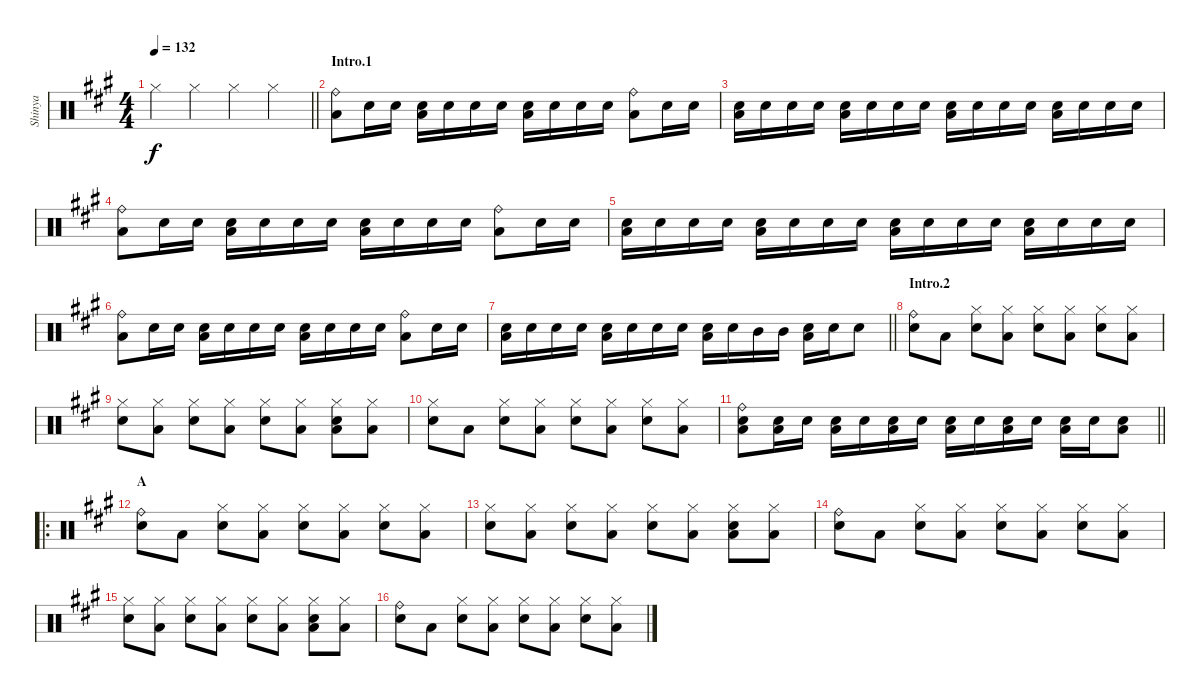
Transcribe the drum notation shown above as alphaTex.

\track ("Shinya" "Shinya") {instrument percussion}
\staff {score}
\articulation defaults
\ts (4 4)
\tempo 132
\clef neutral
\barLineRight lightlight
\ks a "Hi-Hat (closed)".4{dy f} "Hi-Hat (closed)".4 "Hi-Hat (closed)".4 "Hi-Hat (closed)".4
|
\section ("" "Intro.1")
("Low Floor Tom (hit)" "Ride (bell)").8 "Snare (hit) 2".16 "Snare (hit) 2".16 ("Low Floor Tom (hit)" "Snare (hit) 2").16 "Snare (hit) 2".16 "Snare (hit) 2".16 "Snare (hit) 2".16 ("Low Floor Tom (hit)" "Snare (hit) 2").16 "Snare (hit) 2".16 "Snare (hit) 2".16 "Snare (hit) 2".16 ("Low Floor Tom (hit)" "Ride (bell)").8 "Snare (hit) 2".16 "Snare (hit) 2".16 |
("Low Floor Tom (hit)" "Snare (hit) 2").16 "Snare (hit) 2".16 "Snare (hit) 2".16 "Snare (hit) 2".16 ("Low Floor Tom (hit)" "Snare (hit) 2").16 "Snare (hit) 2".16 "Snare (hit) 2".16 "Snare (hit) 2".16 ("Low Floor Tom (hit)" "Snare (hit) 2").16 "Snare (hit) 2".16 "Snare (hit) 2".16 "Snare (hit) 2".16 ("Low Floor Tom (hit)" "Snare (hit) 2").16 "Snare (hit) 2".16 "Snare (hit) 2".16 "Snare (hit) 2".16 |
("Low Floor Tom (hit)" "Ride (bell)").8 "Snare (hit) 2".16 "Snare (hit) 2".16 ("Low Floor Tom (hit)" "Snare (hit) 2").16 "Snare (hit) 2".16 "Snare (hit) 2".16 "Snare (hit) 2".16 ("Low Floor Tom (hit)" "Snare (hit) 2").16 "Snare (hit) 2".16 "Snare (hit) 2".16 "Snare (hit) 2".16 ("Low Floor Tom (hit)" "Ride (bell)").8 "Snare (hit) 2".16 "Snare (hit) 2".16 |
("Low Floor Tom (hit)" "Snare (hit) 2").16 "Snare (hit) 2".16 "Snare (hit) 2".16 "Snare (hit) 2".16 ("Low Floor Tom (hit)" "Snare (hit) 2").16 "Snare (hit) 2".16 "Snare (hit) 2".16 "Snare (hit) 2".16 ("Low Floor Tom (hit)" "Snare (hit) 2").16 "Snare (hit) 2".16 "Snare (hit) 2".16 "Snare (hit) 2".16 ("Low Floor Tom (hit)" "Snare (hit) 2").16 "Snare (hit) 2".16 "Snare (hit) 2".16 "Snare (hit) 2".16 |
("Low Floor Tom (hit)" "Ride (bell)").8 "Snare (hit) 2".16 "Snare (hit) 2".16 ("Low Floor Tom (hit)" "Snare (hit) 2").16 "Snare (hit) 2".16 "Snare (hit) 2".16 "Snare (hit) 2".16 ("Low Floor Tom (hit)" "Snare (hit) 2").16 "Snare (hit) 2".16 "Snare (hit) 2".16 "Snare (hit) 2".16 ("Low Floor Tom (hit)" "Ride (bell)").8 "Snare (hit) 2".16 "Snare (hit) 2".16 |
\barLineRight lightlight
("Low Floor Tom (hit)" "Snare (hit) 2").16 "Snare (hit) 2".16 "Snare (hit) 2".16 "Snare (hit) 2".16 ("Low Floor Tom (hit)" "Snare (hit) 2").16 "Snare (hit) 2".16 "Snare (hit) 2".16 "Snare (hit) 2".16 ("Low Floor Tom (hit)" "Snare (hit) 2").16 "Snare (hit) 2".16 "Mid Tom (hit)".16 "Mid Tom (hit)".16 ("Low Floor Tom (hit)" "Snare (hit) 2").16 "Snare (hit) 2".16 "Snare (hit) 2".8 |
\section ("" "Intro.2")
("Ride (bell)" "Snare (hit) 2").8 "Low Floor Tom (hit)".8 ("Hi-Hat (closed)" "Snare (hit) 2").8 ("Low Floor Tom (hit)" "Hi-Hat (closed)").8 ("Hi-Hat (closed)" "Snare (hit) 2").8 ("Low Floor Tom (hit)" "Hi-Hat (closed)").8 ("Hi-Hat (closed)" "Snare (hit) 2").8 ("Low Floor Tom (hit)" "Hi-Hat (closed)").8 |
("Hi-Hat (closed)" "Snare (hit) 2").8 ("Low Floor Tom (hit)" "Hi-Hat (closed)").8 ("Hi-Hat (closed)" "Snare (hit) 2").8 ("Low Floor Tom (hit)" "Hi-Hat (closed)").8 ("Hi-Hat (closed)" "Snare (hit) 2").8 ("Low Floor Tom (hit)" "Hi-Hat (closed)").8 ("Low Floor Tom (hit)" "Hi-Hat (closed)" "Snare (hit) 2").8 ("Low Floor Tom (hit)" "Hi-Hat (closed)").8 |
("Hi-Hat (closed)" "Snare (hit) 2").8 "Low Floor Tom (hit)".8 ("Hi-Hat (closed)" "Snare (hit) 2").8 ("Low Floor Tom (hit)" "Hi-Hat (closed)").8 ("Hi-Hat (closed)" "Snare (hit) 2").8 ("Low Floor Tom (hit)" "Hi-Hat (closed)").8 ("Hi-Hat (closed)" "Snare (hit) 2").8 ("Low Floor Tom (hit)" "Hi-Hat (closed)").8 |
\barLineRight lightlight
("Low Floor Tom (hit)" "Ride (bell)" "Snare (hit) 2").8 ("Low Floor Tom (hit)" "Snare (hit) 2").16 "Snare (hit) 2".16 ("Low Floor Tom (hit)" "Snare (hit) 2").16 "Snare (hit) 2".16 ("Low Floor Tom (hit)" "Snare (hit) 2").16 "Snare (hit) 2".16 ("Low Floor Tom (hit)" "Snare (hit) 2").16 "Snare (hit) 2".16 ("Low Floor Tom (hit)" "Snare (hit) 2").16 "Snare (hit) 2".16 ("Low Floor Tom (hit)" "Snare (hit) 2").16 "Snare (hit) 2".16 ("Low Floor Tom (hit)" "Snare (hit) 2").8 |
\ro
\section ("" "A")
("Ride (bell)" "Snare (hit) 2").8 "Low Floor Tom (hit)".8 ("Hi-Hat (closed)" "Snare (hit) 2").8 ("Low Floor Tom (hit)" "Hi-Hat (closed)").8 ("Hi-Hat (closed)" "Snare (hit) 2").8 ("Low Floor Tom (hit)" "Hi-Hat (closed)").8 ("Hi-Hat (closed)" "Snare (hit) 2").8 ("Low Floor Tom (hit)" "Hi-Hat (closed)").8 |
("Hi-Hat (closed)" "Snare (hit) 2").8 ("Low Floor Tom (hit)" "Hi-Hat (closed)").8 ("Hi-Hat (closed)" "Snare (hit) 2").8 ("Low Floor Tom (hit)" "Hi-Hat (closed)").8 ("Hi-Hat (closed)" "Snare (hit) 2").8 ("Low Floor Tom (hit)" "Hi-Hat (closed)").8 ("Low Floor Tom (hit)" "Hi-Hat (closed)" "Snare (hit) 2").8 ("Low Floor Tom (hit)" "Hi-Hat (closed)").8 |
("Ride (bell)" "Snare (hit) 2").8 "Low Floor Tom (hit)".8 ("Hi-Hat (closed)" "Snare (hit) 2").8 ("Low Floor Tom (hit)" "Hi-Hat (closed)").8 ("Hi-Hat (closed)" "Snare (hit) 2").8 ("Low Floor Tom (hit)" "Hi-Hat (closed)").8 ("Hi-Hat (closed)" "Snare (hit) 2").8 ("Low Floor Tom (hit)" "Hi-Hat (closed)").8 |
("Hi-Hat (closed)" "Snare (hit) 2").8 ("Low Floor Tom (hit)" "Hi-Hat (closed)").8 ("Hi-Hat (closed)" "Snare (hit) 2").8 ("Low Floor Tom (hit)" "Hi-Hat (closed)").8 ("Hi-Hat (closed)" "Snare (hit) 2").8 ("Low Floor Tom (hit)" "Hi-Hat (closed)").8 ("Low Floor Tom (hit)" "Hi-Hat (closed)" "Snare (hit) 2").8 ("Low Floor Tom (hit)" "Hi-Hat (closed)").8 |
("Ride (bell)" "Snare (hit) 2").8 "Low Floor Tom (hit)".8 ("Hi-Hat (closed)" "Snare (hit) 2").8 ("Low Floor Tom (hit)" "Hi-Hat (closed)").8 ("Hi-Hat (closed)" "Snare (hit) 2").8 ("Low Floor Tom (hit)" "Hi-Hat (closed)").8 ("Hi-Hat (closed)" "Snare (hit) 2").8 ("Low Floor Tom (hit)" "Hi-Hat (closed)").8
